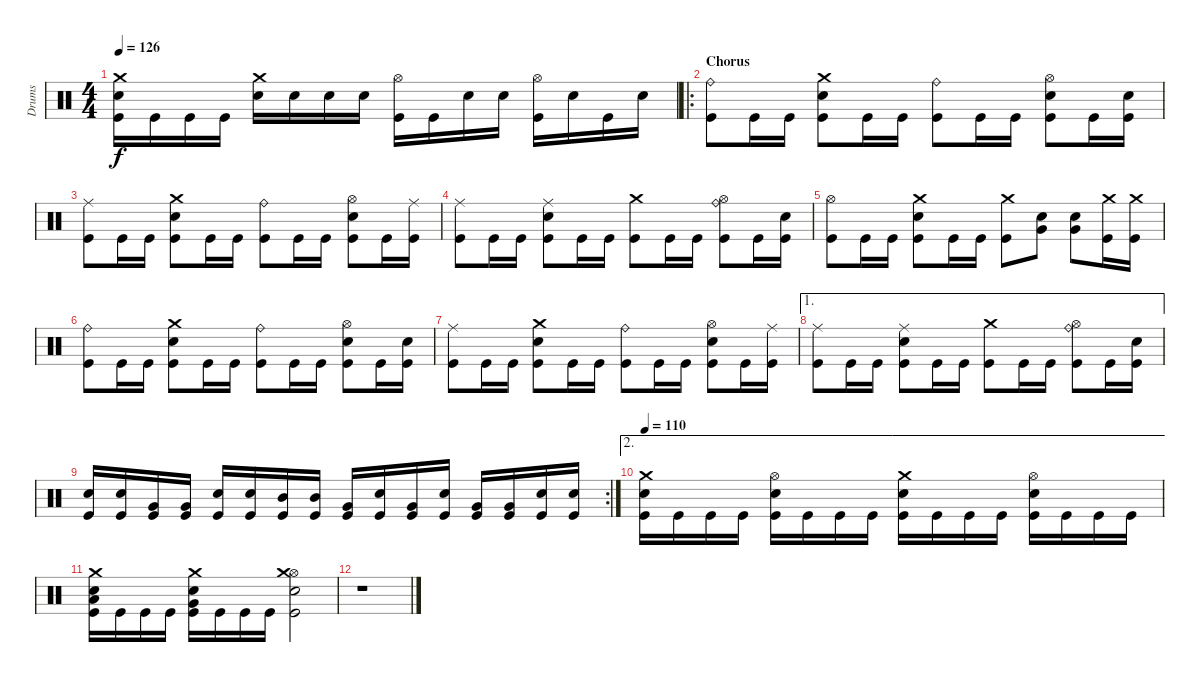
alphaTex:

\track ("Drums" "Drums") {instrument percussion}
\staff {score}
\articulation defaults
\ts (4 4)
\tempo 126
\clef neutral
\ks c
("Crash medium (hit)" "Electric Snare (hit)" "Kick (hit)").16{dy f} "Kick (hit)".16 "Kick (hit)".16 "Kick (hit)".16 ("Crash medium (hit)" "Electric Snare (hit)").16 "Electric Snare (hit)".16 "Electric Snare (hit)".16 "Electric Snare (hit)".16 ("Hi-Hat (open)" "Kick (hit)").16 "Kick (hit)".16 "Electric Snare (hit)".16 "Electric Snare (hit)".16 ("Hi-Hat (open)" "Kick (hit)").16 "Electric Snare (hit)".16 "Kick (hit)".16 "Electric Snare (hit)".16 |
\ro
\section ("" "Chorus")
("Ride (bell)" "Kick (hit)").8 "Kick (hit)".16 "Kick (hit)".16 ("Crash medium (hit)" "Electric Snare (hit)" "Kick (hit)").8 "Kick (hit)".16 "Kick (hit)".16 ("Ride (bell)" "Kick (hit)").8 "Kick (hit)".16 "Kick (hit)".16 ("Electric Snare (hit)" "Hi-Hat (open)" "Kick (hit)").8 "Kick (hit)".16 ("Electric Snare (hit)" "Kick (hit)").16 |
("Ride (middle)" "Kick (hit)").8 "Kick (hit)".16 "Kick (hit)".16 ("Crash medium (hit)" "Electric Snare (hit)" "Kick (hit)").8 "Kick (hit)".16 "Kick (hit)".16 ("Ride (bell)" "Kick (hit)").8 "Kick (hit)".16 "Kick (hit)".16 ("Electric Snare (hit)" "Hi-Hat (open)" "Kick (hit)").8 "Kick (hit)".16 ("Ride (middle)" "Kick (hit)").16 |
("Ride (middle)" "Kick (hit)").8 "Kick (hit)".16 "Kick (hit)".16 ("Ride (middle)" "Electric Snare (hit)" "Kick (hit)").8 "Kick (hit)".16 "Kick (hit)".16 ("Crash medium (hit)" "Kick (hit)").8 "Kick (hit)".16 "Kick (hit)".16 ("Ride (bell)" "Hi-Hat (open)" "Kick (hit)").8 "Kick (hit)".16 ("Electric Snare (hit)" "Kick (hit)").16 |
("Hi-Hat (open)" "Kick (hit)").8 "Kick (hit)".16 "Kick (hit)".16 ("Crash medium (hit)" "Electric Snare (hit)" "Kick (hit)").8 "Kick (hit)".16 "Kick (hit)".16 ("Crash medium (hit)" "Kick (hit)").8 ("Very Low Tom (hit)" "Electric Snare (hit)").8 ("Very Low Tom (hit)" "Electric Snare (hit)").8 ("Crash medium (hit)" "Kick (hit)").16 ("Crash medium (hit)" "Kick (hit)").16 |
("Ride (bell)" "Kick (hit)").8 "Kick (hit)".16 "Kick (hit)".16 ("Crash medium (hit)" "Electric Snare (hit)" "Kick (hit)").8 "Kick (hit)".16 "Kick (hit)".16 ("Ride (bell)" "Kick (hit)").8 "Kick (hit)".16 "Kick (hit)".16 ("Electric Snare (hit)" "Hi-Hat (open)" "Kick (hit)").8 "Kick (hit)".16 ("Electric Snare (hit)" "Kick (hit)").16 |
("Ride (middle)" "Kick (hit)").8 "Kick (hit)".16 "Kick (hit)".16 ("Crash medium (hit)" "Electric Snare (hit)" "Kick (hit)").8 "Kick (hit)".16 "Kick (hit)".16 ("Ride (bell)" "Kick (hit)").8 "Kick (hit)".16 "Kick (hit)".16 ("Electric Snare (hit)" "Hi-Hat (open)" "Kick (hit)").8 "Kick (hit)".16 ("Ride (middle)" "Kick (hit)").16 |
\ae 1
("Ride (middle)" "Kick (hit)").8 "Kick (hit)".16 "Kick (hit)".16 ("Ride (middle)" "Electric Snare (hit)" "Kick (hit)").8 "Kick (hit)".16 "Kick (hit)".16 ("Crash medium (hit)" "Kick (hit)").8 "Kick (hit)".16 "Kick (hit)".16 ("Ride (bell)" "Hi-Hat (open)" "Kick (hit)").8 "Kick (hit)".16 ("Electric Snare (hit)" "Kick (hit)").16 |
\rc 2
("Electric Snare (hit)" "Kick (hit)").16 ("Electric Snare (hit)" "Kick (hit)").16 ("Very Low Tom (hit)" "Kick (hit)").16 ("Very Low Tom (hit)" "Kick (hit)").16 ("Electric Snare (hit)" "Kick (hit)").16 ("Electric Snare (hit)" "Kick (hit)").16 ("Mid Tom (hit)" "Kick (hit)").16 ("Mid Tom (hit)" "Kick (hit)").16 ("Very Low Tom (hit)" "Kick (hit)").16 ("Electric Snare (hit)" "Kick (hit)").16 ("Very Low Tom (hit)" "Kick (hit)").16 ("Electric Snare (hit)" "Kick (hit)").16 ("Very Low Tom (hit)" "Kick (hit)").16 ("Very Low Tom (hit)" "Kick (hit)").16 ("Electric Snare (hit)" "Kick (hit)").16 ("Electric Snare (hit)" "Kick (hit)").16 |
\ae 2
\tempo 110
("Crash medium (hit)" "Electric Snare (hit)" "Kick (hit)").16 "Kick (hit)".16 "Kick (hit)".16 "Kick (hit)".16 ("Hi-Hat (open)" "Electric Snare (hit)" "Kick (hit)").16 "Kick (hit)".16 "Kick (hit)".16 "Kick (hit)".16 ("Crash medium (hit)" "Electric Snare (hit)" "Kick (hit)").16 "Kick (hit)".16 "Kick (hit)".16 "Kick (hit)".16 ("Hi-Hat (open)" "Electric Snare (hit)" "Kick (hit)").16 "Kick (hit)".16 "Kick (hit)".16 "Kick (hit)".16 |
("Crash medium (hit)" "Low Tom (hit)" "Electric Snare (hit)" "Kick (hit)").16 "Kick (hit)".16 "Kick (hit)".16 "Kick (hit)".16 ("Crash medium (hit)" "Very Low Tom (hit)" "Electric Snare (hit)" "Kick (hit)").16 "Kick (hit)".16 "Kick (hit)".16 "Kick (hit)".16 ("Hi-Hat (open)" "Crash medium (hit)" "Electric Snare (hit)" "Kick (hit)").2 |
r.1
